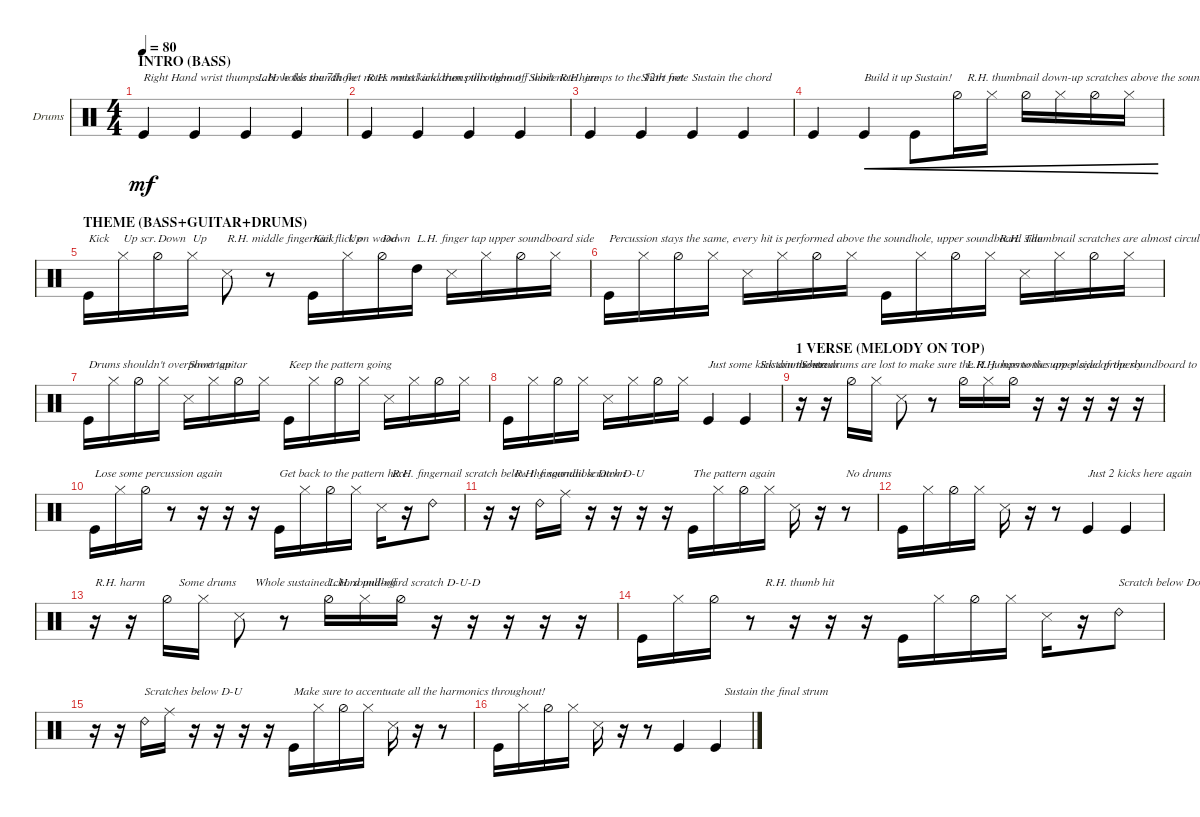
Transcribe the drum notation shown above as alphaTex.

\defaultSystemsLayout 4
\bracketExtendMode groupsimilarinstruments
\firstSystemTrackNameOrientation horizontal
\otherSystemsTrackNameOrientation horizontal
\track ("Guitar Percussion" "Drums") {instrument percussion}
\staff {score}
\articulation defaults
\ts (4 4)
\section ("" "INTRO (BASS)")
\tempo 80
\clef neutral
\ks c "Kick (hit)".4{txt "Right Hand wrist thumps above the soundhole" dy mf} "Kick (hit)".4{txt "                     L.H. holds the 7th fret notes muted and then pulls them off while R.H. jumps to the 12th fret"} "Kick (hit)".4 "Kick (hit)".4
|
"Kick (hit)".4{txt "R.H. wrist kick drums throughout"} "Kick (hit)".4 "Kick (hit)".4 "Kick (hit)".4{txt "   Short note here"} |
"Kick (hit)".4 "Kick (hit)".4{txt "Short note"} "Kick (hit)".4{txt "Sustain the chord"} "Kick (hit)".4 |
"Kick (hit)".4 "Kick (hit)".4{txt "Build it up" cre} "Kick (hit)".8{txt "Sustain!     R.H. thumbnail down-up scratches above the soundhole (circular motion)" cre} "Hi-Hat (half)".16{cre} "Hi-Hat (closed)".16{cre} "Hi-Hat (half)".16{cre} "Hi-Hat (closed)".16{cre} "Hi-Hat (half)".16{cre} "Hi-Hat (closed)".16{cre} |
\section ("" "THEME (BASS+GUITAR+DRUMS)")
"Kick (hit)".16{txt "Kick"} "Hi-Hat (closed)".16{txt "Up scr."} "Hi-Hat (half)".16{txt "Down"} "Hi-Hat (closed)".16{txt "Up"} "Snare (side stick) 3".8{txt "R.H. middle fingernail flick on wood"} r.8 "Kick (hit)".16{txt "Kick"} "Hi-Hat (closed)".16{txt "Up"} "Hi-Hat (half)".16{txt "Down"} "High Tom (hit)".16{txt "L.H. finger tap upper soundboard side"} "Snare (side stick) 3".16 "Hi-Hat (closed)".16 "Hi-Hat (half)".16 "Hi-Hat (closed)".16 |
"Kick (hit)".16{txt "Percussion stays the same, every hit is performed above the soundhole, upper soundboard side"} "Hi-Hat (closed)".16 "Hi-Hat (half)".16 "Hi-Hat (closed)".16 "Snare (side stick) 3".16 "Hi-Hat (closed)".16 "Hi-Hat (half)".16 "Hi-Hat (closed)".16 "Kick (hit)".16 "Hi-Hat (closed)".16 "Hi-Hat (half)".16 "Hi-Hat (closed)".16{txt "   R.H. Thumbnail scratches are almost circular"} "Snare (side stick) 3".16 "Hi-Hat (closed)".16 "Hi-Hat (half)".16 "Hi-Hat (closed)".16 |
"Kick (hit)".16{txt "Drums shouldn't overpower guitar"} "Hi-Hat (closed)".16 "Hi-Hat (half)".16 "Hi-Hat (closed)".16 "Snare (side stick) 3".16{txt "Short tap"} "Hi-Hat (closed)".16 "Hi-Hat (half)".16 "Hi-Hat (closed)".16 "Kick (hit)".16{txt "Keep the pattern going"} "Hi-Hat (closed)".16 "Hi-Hat (half)".16 "Hi-Hat (closed)".16 "Snare (side stick) 3".16 "Hi-Hat (closed)".16 "Hi-Hat (half)".16 "Hi-Hat (closed)".16 |
"Kick (hit)".16 "Hi-Hat (closed)".16 "Hi-Hat (half)".16 "Hi-Hat (closed)".16 "Snare (side stick) 3".16 "Hi-Hat (closed)".16 "Hi-Hat (half)".16 "Hi-Hat (closed)".16 "Kick (hit)".4{txt "Just some kick drums here"} "Kick (hit)".4{txt "     Sustain the strum"} |
\section ("" "1 VERSE (MELODY ON TOP)")
r.16{txt "Some drums are lost to make sure the R.H. harmonics are played properly"} r.16 "Hi-Hat (half)".16 "Hi-Hat (closed)".16 "Snare (side stick) 3".8 r.8 "Hi-Hat (half)".16{txt " L.H. jumps to the upper side of the soundboard to keep the scratching going D-U-D"} "Hi-Hat (closed)".16 "Hi-Hat (half)".16 r.16 r.16 r.16 r.16 r.16 |
"Kick (hit)".16{txt "Lose some percussion again"} "Hi-Hat (closed)".16 "Hi-Hat (half)".16 r.8 r.16 r.16 r.16 "Kick (hit)".16{txt "Get back to the pattern here"} "Hi-Hat (closed)".16 "Hi-Hat (half)".16 "Hi-Hat (closed)".16{txt "            R.H. fingernail scratch below the soundhole Down"} "Snare (side stick) 3".16 r.16 "Ride (bell) 2".8 |
r.16 r.16{txt "R.H. fingernail scratch D-U"} "Ride (bell) 2".16 "Ride (middle)".16 r.16 r.16 r.16 r.16 "Kick (hit)".16{txt "The pattern again"} "Hi-Hat (closed)".16 "Hi-Hat (half)".16 "Hi-Hat (closed)".16 "Snare (side stick) 3".16 r.16 r.8{txt "No drums"} |
"Kick (hit)".16 "Hi-Hat (closed)".16 "Hi-Hat (half)".16 "Hi-Hat (closed)".16 "Snare (side stick) 3".16 r.16 r.8 "Kick (hit)".4{txt "Just 2 kicks here again"} "Kick (hit)".4 |
r.16{txt "R.H. harm"} r.16 "Hi-Hat (half)".16{txt "    Some drums"} "Hi-Hat (closed)".16 "Snare (side stick) 3".8{txt "     Whole sustained chord pull-off"} r.8 "Hi-Hat (half)".16{txt "L.H. soundboard scratch D-U-D"} "Hi-Hat (closed)".16 "Hi-Hat (half)".16 r.16 r.16 r.16 r.16 r.16 |
"Kick (hit)".16 "Hi-Hat (closed)".16 "Hi-Hat (half)".16 r.8{txt "     R.H. thumb hit"} r.16 r.16 r.16 "Kick (hit)".16 "Hi-Hat (closed)".16 "Hi-Hat (half)".16 "Hi-Hat (closed)".16 "Snare (side stick) 3".16 r.16 "Ride (bell) 2".8{txt "Scratch below Down"} |
r.16 r.16 "Ride (bell) 2".16{txt "Scratches below D-U"} "Ride (middle)".16 r.16 r.16 r.16 r.16 "Kick (hit)".16{txt "Make sure to accentuate all the harmonics throughout!"} "Hi-Hat (closed)".16 "Hi-Hat (half)".16 "Hi-Hat (closed)".16 "Snare (side stick) 3".16 r.16 r.8 |
"Kick (hit)".16 "Hi-Hat (closed)".16 "Hi-Hat (half)".16 "Hi-Hat (closed)".16 "Snare (side stick) 3".16 r.16 r.8 "Kick (hit)".4 "Kick (hit)".4{txt "   Sustain the final strum"}
